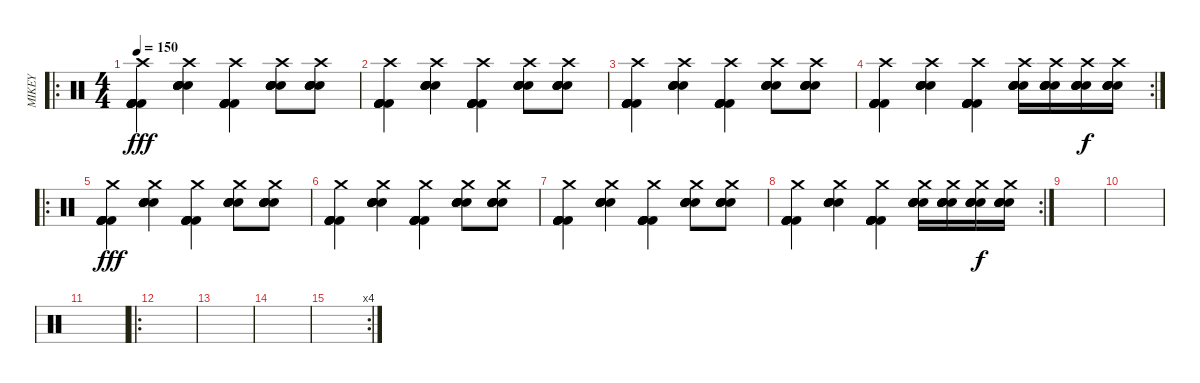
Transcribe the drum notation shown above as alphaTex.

\track ("MIKEY" "MIKEY") {instrument percussion}
\staff {score}
\articulation defaults
\ro
\ts (4 4)
\tempo 150
\clef neutral
\ks c
("Crash high (hit)" "Kick (hit) 2" "Kick (hit) 2" "Kick (hit) 2" "Kick (hit) 2" "Kick (hit) 2").4{dy fff} ("Crash high (hit)" "Electric Snare (hit)" "Electric Snare (hit)" "Electric Snare (hit)" "Electric Snare (hit)" "Electric Snare (hit)").4 ("Crash high (hit)" "Kick (hit) 2" "Kick (hit) 2" "Kick (hit) 2" "Kick (hit) 2" "Kick (hit) 2").4 ("Crash high (hit)" "Electric Snare (hit)" "Electric Snare (hit)" "Electric Snare (hit)" "Electric Snare (hit)" "Electric Snare (hit)").8 ("Crash high (hit)" "Electric Snare (hit)" "Electric Snare (hit)" "Electric Snare (hit)" "Electric Snare (hit)" "Electric Snare (hit)").8 |
("Crash high (hit)" "Kick (hit) 2" "Kick (hit) 2" "Kick (hit) 2" "Kick (hit) 2" "Kick (hit) 2").4 ("Crash high (hit)" "Electric Snare (hit)" "Electric Snare (hit)" "Electric Snare (hit)" "Electric Snare (hit)" "Electric Snare (hit)").4 ("Crash high (hit)" "Kick (hit) 2" "Kick (hit) 2" "Kick (hit) 2" "Kick (hit) 2" "Kick (hit) 2").4 ("Crash high (hit)" "Electric Snare (hit)" "Electric Snare (hit)" "Electric Snare (hit)" "Electric Snare (hit)" "Electric Snare (hit)").8 ("Crash high (hit)" "Electric Snare (hit)" "Electric Snare (hit)" "Electric Snare (hit)" "Electric Snare (hit)" "Electric Snare (hit)").8 |
("Crash high (hit)" "Kick (hit) 2" "Kick (hit) 2" "Kick (hit) 2" "Kick (hit) 2" "Kick (hit) 2").4 ("Crash high (hit)" "Electric Snare (hit)" "Electric Snare (hit)" "Electric Snare (hit)" "Electric Snare (hit)" "Electric Snare (hit)").4 ("Crash high (hit)" "Kick (hit) 2" "Kick (hit) 2" "Kick (hit) 2" "Kick (hit) 2" "Kick (hit) 2").4 ("Crash high (hit)" "Electric Snare (hit)" "Electric Snare (hit)" "Electric Snare (hit)" "Electric Snare (hit)" "Electric Snare (hit)").8 ("Crash high (hit)" "Electric Snare (hit)" "Electric Snare (hit)" "Electric Snare (hit)" "Electric Snare (hit)" "Electric Snare (hit)").8 |
\rc 2
("Crash high (hit)" "Kick (hit) 2" "Kick (hit) 2" "Kick (hit) 2" "Kick (hit) 2" "Kick (hit) 2").4 ("Crash high (hit)" "Electric Snare (hit)" "Electric Snare (hit)" "Electric Snare (hit)" "Electric Snare (hit)" "Electric Snare (hit)").4 ("Crash high (hit)" "Kick (hit) 2" "Kick (hit) 2" "Kick (hit) 2" "Kick (hit) 2" "Kick (hit) 2").4 ("Crash high (hit)" "Electric Snare (hit)" "Electric Snare (hit)" "Electric Snare (hit)" "Electric Snare (hit)" "Electric Snare (hit)").16 ("Crash high (hit)" "Electric Snare (hit)" "Electric Snare (hit)" "Electric Snare (hit)" "Electric Snare (hit)" "Electric Snare (hit)").16 ("Crash high (hit)" "Electric Snare (hit)" "Electric Snare (hit)" "Electric Snare (hit)" "Electric Snare (hit)" "Electric Snare (hit)").16{dy f} ("Crash high (hit)" "Electric Snare (hit)" "Electric Snare (hit)" "Electric Snare (hit)" "Electric Snare (hit)" "Electric Snare (hit)").16 |
\ro
("Crash medium (hit)" "Kick (hit) 2" "Kick (hit) 2" "Kick (hit) 2" "Kick (hit) 2" "Kick (hit) 2").4{dy fff} ("Crash medium (hit)" "Electric Snare (hit)" "Electric Snare (hit)" "Electric Snare (hit)" "Electric Snare (hit)" "Electric Snare (hit)").4 ("Crash medium (hit)" "Kick (hit) 2" "Kick (hit) 2" "Kick (hit) 2" "Kick (hit) 2" "Kick (hit) 2").4 ("Crash medium (hit)" "Electric Snare (hit)" "Electric Snare (hit)" "Electric Snare (hit)" "Electric Snare (hit)" "Electric Snare (hit)").8 ("Crash medium (hit)" "Electric Snare (hit)" "Electric Snare (hit)" "Electric Snare (hit)" "Electric Snare (hit)" "Electric Snare (hit)").8 |
("Crash medium (hit)" "Kick (hit) 2" "Kick (hit) 2" "Kick (hit) 2" "Kick (hit) 2" "Kick (hit) 2").4 ("Crash medium (hit)" "Electric Snare (hit)" "Electric Snare (hit)" "Electric Snare (hit)" "Electric Snare (hit)" "Electric Snare (hit)").4 ("Crash medium (hit)" "Kick (hit) 2" "Kick (hit) 2" "Kick (hit) 2" "Kick (hit) 2" "Kick (hit) 2").4 ("Crash medium (hit)" "Electric Snare (hit)" "Electric Snare (hit)" "Electric Snare (hit)" "Electric Snare (hit)" "Electric Snare (hit)").8 ("Crash medium (hit)" "Electric Snare (hit)" "Electric Snare (hit)" "Electric Snare (hit)" "Electric Snare (hit)" "Electric Snare (hit)").8 |
("Crash medium (hit)" "Kick (hit) 2" "Kick (hit) 2" "Kick (hit) 2" "Kick (hit) 2" "Kick (hit) 2").4 ("Crash medium (hit)" "Electric Snare (hit)" "Electric Snare (hit)" "Electric Snare (hit)" "Electric Snare (hit)" "Electric Snare (hit)").4 ("Crash medium (hit)" "Kick (hit) 2" "Kick (hit) 2" "Kick (hit) 2" "Kick (hit) 2" "Kick (hit) 2").4 ("Crash medium (hit)" "Electric Snare (hit)" "Electric Snare (hit)" "Electric Snare (hit)" "Electric Snare (hit)" "Electric Snare (hit)").8 ("Crash medium (hit)" "Electric Snare (hit)" "Electric Snare (hit)" "Electric Snare (hit)" "Electric Snare (hit)" "Electric Snare (hit)").8 |
\rc 2
("Crash medium (hit)" "Kick (hit) 2" "Kick (hit) 2" "Kick (hit) 2" "Kick (hit) 2" "Kick (hit) 2").4 ("Crash medium (hit)" "Electric Snare (hit)" "Electric Snare (hit)" "Electric Snare (hit)" "Electric Snare (hit)" "Electric Snare (hit)").4 ("Crash medium (hit)" "Kick (hit) 2" "Kick (hit) 2" "Kick (hit) 2" "Kick (hit) 2" "Kick (hit) 2").4 ("Crash medium (hit)" "Electric Snare (hit)" "Electric Snare (hit)" "Electric Snare (hit)" "Electric Snare (hit)" "Electric Snare (hit)").16 ("Crash medium (hit)" "Electric Snare (hit)" "Electric Snare (hit)" "Electric Snare (hit)" "Electric Snare (hit)" "Electric Snare (hit)").16 ("Crash medium (hit)" "Electric Snare (hit)" "Electric Snare (hit)" "Electric Snare (hit)" "Electric Snare (hit)" "Electric Snare (hit)").16{dy f} ("Crash medium (hit)" "Electric Snare (hit)" "Electric Snare (hit)" "Electric Snare (hit)" "Electric Snare (hit)" "Electric Snare (hit)").16 |
|
|
|
\ro
|
|
|
\rc 4
